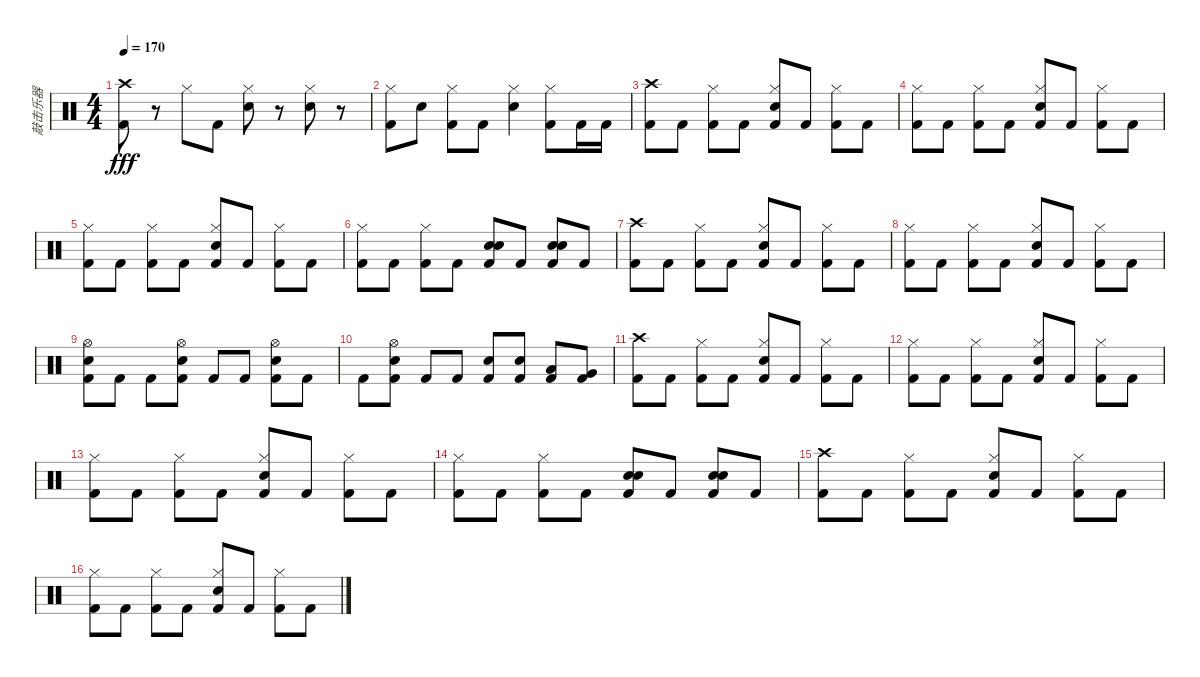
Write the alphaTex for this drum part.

\track ("敲击乐器" "敲击乐器") {instrument percussion}
\staff {score}
\articulation defaults
\ts (4 4)
\tempo 170
\clef neutral
\ks c
("Crash high (hit)" "Kick (hit) 2").8{dy fff} r.8 "Hi-Hat (closed)".8 "Kick (hit) 2".8 ("Hi-Hat (closed)" "Electric Snare (hit)").8 r.8 ("Hi-Hat (closed)" "Electric Snare (hit)").8 r.8 |
("Hi-Hat (closed)" "Kick (hit) 2").8 "Electric Snare (hit)".8 ("Hi-Hat (closed)" "Kick (hit) 2").8 "Kick (hit) 2".8 ("Hi-Hat (closed)" "Electric Snare (hit)").4 ("Hi-Hat (closed)" "Kick (hit) 2").8 "Kick (hit) 2".16 "Kick (hit) 2".16 |
("Crash high (hit)" "Kick (hit) 2").8 "Kick (hit) 2".8 ("Hi-Hat (closed)" "Kick (hit) 2").8 "Kick (hit) 2".8 ("Hi-Hat (closed)" "Electric Snare (hit)" "Kick (hit) 2").8 "Kick (hit) 2".8 ("Hi-Hat (closed)" "Kick (hit) 2").8 "Kick (hit) 2".8 |
("Hi-Hat (closed)" "Kick (hit) 2").8 "Kick (hit) 2".8 ("Hi-Hat (closed)" "Kick (hit) 2").8 "Kick (hit) 2".8 ("Hi-Hat (closed)" "Electric Snare (hit)" "Kick (hit) 2").8 "Kick (hit) 2".8 ("Hi-Hat (closed)" "Kick (hit) 2").8 "Kick (hit) 2".8 |
("Hi-Hat (closed)" "Kick (hit) 2").8 "Kick (hit) 2".8 ("Hi-Hat (closed)" "Kick (hit) 2").8 "Kick (hit) 2".8 ("Hi-Hat (closed)" "Electric Snare (hit)" "Kick (hit) 2").8 "Kick (hit) 2".8 ("Hi-Hat (closed)" "Kick (hit) 2").8 "Kick (hit) 2".8 |
("Hi-Hat (closed)" "Kick (hit) 2").8 "Kick (hit) 2".8 ("Hi-Hat (closed)" "Kick (hit) 2").8 "Kick (hit) 2".8 ("Electric Snare (hit)" "Electric Snare (hit)" "Kick (hit) 2").8 "Kick (hit) 2".8 ("Electric Snare (hit)" "Electric Snare (hit)" "Kick (hit) 2").8 "Kick (hit) 2".8 |
("Crash high (hit)" "Kick (hit) 2").8 "Kick (hit) 2".8 ("Hi-Hat (closed)" "Kick (hit) 2").8 "Kick (hit) 2".8 ("Hi-Hat (closed)" "Electric Snare (hit)" "Kick (hit) 2").8 "Kick (hit) 2".8 ("Hi-Hat (closed)" "Kick (hit) 2").8 "Kick (hit) 2".8 |
("Hi-Hat (closed)" "Kick (hit) 2").8 "Kick (hit) 2".8 ("Hi-Hat (closed)" "Kick (hit) 2").8 "Kick (hit) 2".8 ("Hi-Hat (closed)" "Electric Snare (hit)" "Kick (hit) 2").8 "Kick (hit) 2".8 ("Hi-Hat (closed)" "Kick (hit) 2").8 "Kick (hit) 2".8 |
("Hi-Hat (open)" "Electric Snare (hit)" "Kick (hit) 2").8 "Kick (hit) 2".8 "Kick (hit) 2".8 ("Hi-Hat (open)" "Electric Snare (hit)" "Kick (hit) 2").8 "Kick (hit) 2".8 "Kick (hit) 2".8 ("Hi-Hat (open)" "Electric Snare (hit)" "Kick (hit) 2").8 "Kick (hit) 2".8 |
"Kick (hit) 2".8 ("Hi-Hat (open)" "Electric Snare (hit)" "Kick (hit) 2").8 "Kick (hit) 2".8 "Kick (hit) 2".8 ("Electric Snare (hit)" "Kick (hit) 2").8 ("Electric Snare (hit)" "Kick (hit) 2").8 ("Low Tom (hit)" "Kick (hit) 2").8 ("Very Low Tom (hit)" "Kick (hit) 2").8 |
("Crash high (hit)" "Kick (hit) 2").8 "Kick (hit) 2".8 ("Hi-Hat (closed)" "Kick (hit) 2").8 "Kick (hit) 2".8 ("Hi-Hat (closed)" "Electric Snare (hit)" "Kick (hit) 2").8 "Kick (hit) 2".8 ("Hi-Hat (closed)" "Kick (hit) 2").8 "Kick (hit) 2".8 |
("Hi-Hat (closed)" "Kick (hit) 2").8 "Kick (hit) 2".8 ("Hi-Hat (closed)" "Kick (hit) 2").8 "Kick (hit) 2".8 ("Hi-Hat (closed)" "Electric Snare (hit)" "Kick (hit) 2").8 "Kick (hit) 2".8 ("Hi-Hat (closed)" "Kick (hit) 2").8 "Kick (hit) 2".8 |
("Hi-Hat (closed)" "Kick (hit) 2").8 "Kick (hit) 2".8 ("Hi-Hat (closed)" "Kick (hit) 2").8 "Kick (hit) 2".8 ("Hi-Hat (closed)" "Electric Snare (hit)" "Kick (hit) 2").8 "Kick (hit) 2".8 ("Hi-Hat (closed)" "Kick (hit) 2").8 "Kick (hit) 2".8 |
("Hi-Hat (closed)" "Kick (hit) 2").8 "Kick (hit) 2".8 ("Hi-Hat (closed)" "Kick (hit) 2").8 "Kick (hit) 2".8 ("Electric Snare (hit)" "Electric Snare (hit)" "Kick (hit) 2").8 "Kick (hit) 2".8 ("Electric Snare (hit)" "Electric Snare (hit)" "Kick (hit) 2").8 "Kick (hit) 2".8 |
("Crash high (hit)" "Kick (hit) 2").8 "Kick (hit) 2".8 ("Hi-Hat (closed)" "Kick (hit) 2").8 "Kick (hit) 2".8 ("Hi-Hat (closed)" "Electric Snare (hit)" "Kick (hit) 2").8 "Kick (hit) 2".8 ("Hi-Hat (closed)" "Kick (hit) 2").8 "Kick (hit) 2".8 |
("Hi-Hat (closed)" "Kick (hit) 2").8 "Kick (hit) 2".8 ("Hi-Hat (closed)" "Kick (hit) 2").8 "Kick (hit) 2".8 ("Hi-Hat (closed)" "Electric Snare (hit)" "Kick (hit) 2").8 "Kick (hit) 2".8 ("Hi-Hat (closed)" "Kick (hit) 2").8 "Kick (hit) 2".8
